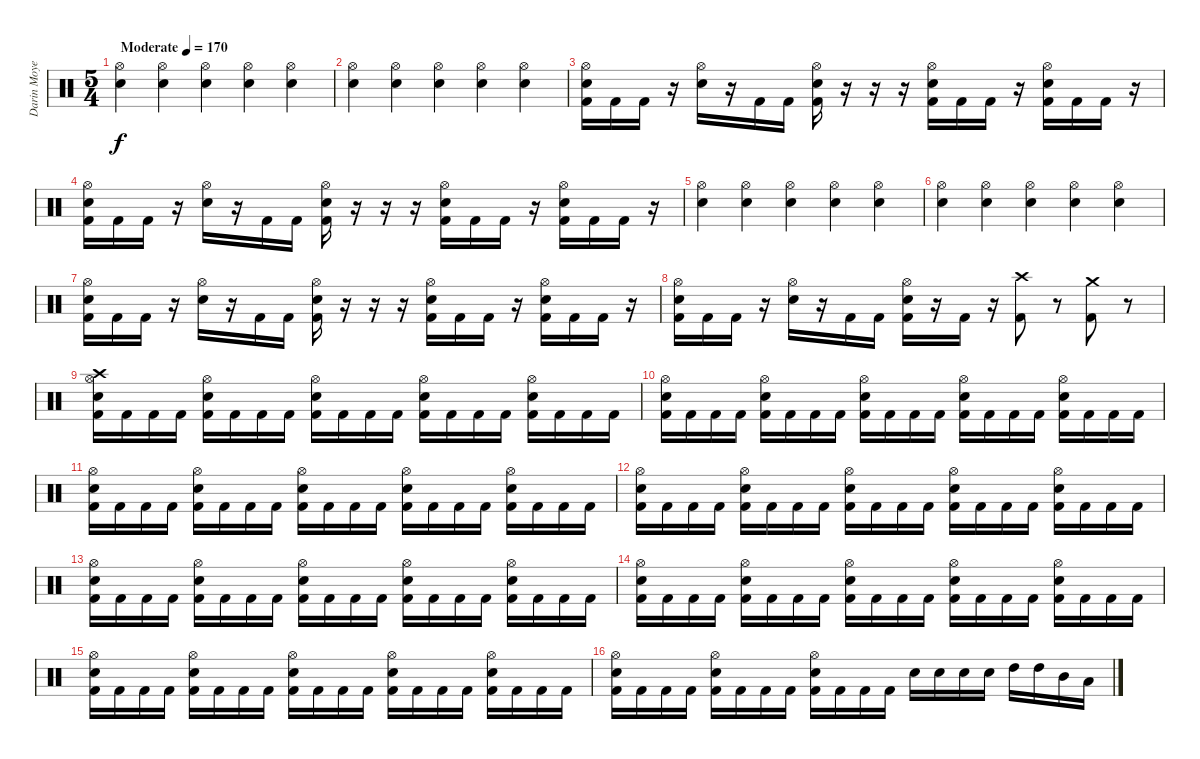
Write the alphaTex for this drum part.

\track ("Darin Moyen" "Darin Moye") {instrument percussion}
\staff {score}
\articulation defaults
\ts (5 4)
\tempo (170 "Moderate")
\clef neutral
\ks c
("Hi-Hat (open)" "Electric Snare (hit)").4{dy f} ("Hi-Hat (open)" "Electric Snare (hit)").4 ("Hi-Hat (open)" "Electric Snare (hit)").4 ("Hi-Hat (open)" "Electric Snare (hit)").4 ("Hi-Hat (open)" "Electric Snare (hit)").4 |
("Hi-Hat (open)" "Electric Snare (hit)").4 ("Hi-Hat (open)" "Electric Snare (hit)").4 ("Hi-Hat (open)" "Electric Snare (hit)").4 ("Hi-Hat (open)" "Electric Snare (hit)").4 ("Hi-Hat (open)" "Electric Snare (hit)").4 |
("Hi-Hat (open)" "Electric Snare (hit)" "Kick (hit) 2").16 "Kick (hit) 2".16 "Kick (hit) 2".16 r.16 ("Hi-Hat (open)" "Electric Snare (hit)").16 r.16 "Kick (hit) 2".16 "Kick (hit) 2".16 ("Hi-Hat (open)" "Electric Snare (hit)" "Kick (hit) 2").16 r.16 r.16 r.16 ("Hi-Hat (open)" "Electric Snare (hit)" "Kick (hit) 2").16 "Kick (hit) 2".16 "Kick (hit) 2".16 r.16 ("Hi-Hat (open)" "Electric Snare (hit)" "Kick (hit) 2").16 "Kick (hit) 2".16 "Kick (hit) 2".16 r.16 |
("Hi-Hat (open)" "Electric Snare (hit)" "Kick (hit) 2").16 "Kick (hit) 2".16 "Kick (hit) 2".16 r.16 ("Hi-Hat (open)" "Electric Snare (hit)").16 r.16 "Kick (hit) 2".16 "Kick (hit) 2".16 ("Hi-Hat (open)" "Electric Snare (hit)" "Kick (hit) 2").16 r.16 r.16 r.16 ("Hi-Hat (open)" "Electric Snare (hit)" "Kick (hit) 2").16 "Kick (hit) 2".16 "Kick (hit) 2".16 r.16 ("Hi-Hat (open)" "Electric Snare (hit)" "Kick (hit) 2").16 "Kick (hit) 2".16 "Kick (hit) 2".16 r.16 |
("Hi-Hat (open)" "Electric Snare (hit)").4 ("Hi-Hat (open)" "Electric Snare (hit)").4 ("Hi-Hat (open)" "Electric Snare (hit)").4 ("Hi-Hat (open)" "Electric Snare (hit)").4 ("Hi-Hat (open)" "Electric Snare (hit)").4 |
("Hi-Hat (open)" "Electric Snare (hit)").4 ("Hi-Hat (open)" "Electric Snare (hit)").4 ("Hi-Hat (open)" "Electric Snare (hit)").4 ("Hi-Hat (open)" "Electric Snare (hit)").4 ("Hi-Hat (open)" "Electric Snare (hit)").4 |
("Hi-Hat (open)" "Electric Snare (hit)" "Kick (hit) 2").16 "Kick (hit) 2".16 "Kick (hit) 2".16 r.16 ("Hi-Hat (open)" "Electric Snare (hit)").16 r.16 "Kick (hit) 2".16 "Kick (hit) 2".16 ("Hi-Hat (open)" "Electric Snare (hit)" "Kick (hit) 2").16 r.16 r.16 r.16 ("Hi-Hat (open)" "Electric Snare (hit)" "Kick (hit) 2").16 "Kick (hit) 2".16 "Kick (hit) 2".16 r.16 ("Hi-Hat (open)" "Electric Snare (hit)" "Kick (hit) 2").16 "Kick (hit) 2".16 "Kick (hit) 2".16 r.16 |
("Hi-Hat (open)" "Electric Snare (hit)" "Kick (hit) 2").16 "Kick (hit) 2".16 "Kick (hit) 2".16 r.16 ("Hi-Hat (open)" "Electric Snare (hit)").16 r.16 "Kick (hit) 2".16 "Kick (hit) 2".16 ("Hi-Hat (open)" "Electric Snare (hit)" "Kick (hit) 2").16 r.16 "Kick (hit) 2".16 r.16 ("Crash high (hit)" "Kick (hit) 2").8 r.8 ("Crash medium (hit)" "Kick (hit) 2").8 r.8 |
("Crash high (hit)" "Hi-Hat (open)" "Electric Snare (hit)" "Kick (hit) 2").16 "Kick (hit) 2".16 "Kick (hit) 2".16 "Kick (hit) 2".16 ("Hi-Hat (open)" "Electric Snare (hit)" "Kick (hit) 2").16 "Kick (hit) 2".16 "Kick (hit) 2".16 "Kick (hit) 2".16 ("Hi-Hat (open)" "Electric Snare (hit)" "Kick (hit) 2").16 "Kick (hit) 2".16 "Kick (hit) 2".16 "Kick (hit) 2".16 ("Hi-Hat (open)" "Electric Snare (hit)" "Kick (hit) 2").16 "Kick (hit) 2".16 "Kick (hit) 2".16 "Kick (hit) 2".16 ("Hi-Hat (open)" "Electric Snare (hit)" "Kick (hit) 2").16 "Kick (hit) 2".16 "Kick (hit) 2".16 "Kick (hit) 2".16 |
("Hi-Hat (open)" "Electric Snare (hit)" "Kick (hit) 2").16 "Kick (hit) 2".16 "Kick (hit) 2".16 "Kick (hit) 2".16 ("Hi-Hat (open)" "Electric Snare (hit)" "Kick (hit) 2").16 "Kick (hit) 2".16 "Kick (hit) 2".16 "Kick (hit) 2".16 ("Hi-Hat (open)" "Electric Snare (hit)" "Kick (hit) 2").16 "Kick (hit) 2".16 "Kick (hit) 2".16 "Kick (hit) 2".16 ("Hi-Hat (open)" "Electric Snare (hit)" "Kick (hit) 2").16 "Kick (hit) 2".16 "Kick (hit) 2".16 "Kick (hit) 2".16 ("Hi-Hat (open)" "Electric Snare (hit)" "Kick (hit) 2").16 "Kick (hit) 2".16 "Kick (hit) 2".16 "Kick (hit) 2".16 |
("Hi-Hat (open)" "Electric Snare (hit)" "Kick (hit) 2").16 "Kick (hit) 2".16 "Kick (hit) 2".16 "Kick (hit) 2".16 ("Hi-Hat (open)" "Electric Snare (hit)" "Kick (hit) 2").16 "Kick (hit) 2".16 "Kick (hit) 2".16 "Kick (hit) 2".16 ("Hi-Hat (open)" "Electric Snare (hit)" "Kick (hit) 2").16 "Kick (hit) 2".16 "Kick (hit) 2".16 "Kick (hit) 2".16 ("Hi-Hat (open)" "Electric Snare (hit)" "Kick (hit) 2").16 "Kick (hit) 2".16 "Kick (hit) 2".16 "Kick (hit) 2".16 ("Hi-Hat (open)" "Electric Snare (hit)" "Kick (hit) 2").16 "Kick (hit) 2".16 "Kick (hit) 2".16 "Kick (hit) 2".16 |
("Hi-Hat (open)" "Electric Snare (hit)" "Kick (hit) 2").16 "Kick (hit) 2".16 "Kick (hit) 2".16 "Kick (hit) 2".16 ("Hi-Hat (open)" "Electric Snare (hit)" "Kick (hit) 2").16 "Kick (hit) 2".16 "Kick (hit) 2".16 "Kick (hit) 2".16 ("Hi-Hat (open)" "Electric Snare (hit)" "Kick (hit) 2").16 "Kick (hit) 2".16 "Kick (hit) 2".16 "Kick (hit) 2".16 ("Hi-Hat (open)" "Electric Snare (hit)" "Kick (hit) 2").16 "Kick (hit) 2".16 "Kick (hit) 2".16 "Kick (hit) 2".16 ("Hi-Hat (open)" "Electric Snare (hit)" "Kick (hit) 2").16 "Kick (hit) 2".16 "Kick (hit) 2".16 "Kick (hit) 2".16 |
("Hi-Hat (open)" "Electric Snare (hit)" "Kick (hit) 2").16 "Kick (hit) 2".16 "Kick (hit) 2".16 "Kick (hit) 2".16 ("Hi-Hat (open)" "Electric Snare (hit)" "Kick (hit) 2").16 "Kick (hit) 2".16 "Kick (hit) 2".16 "Kick (hit) 2".16 ("Hi-Hat (open)" "Electric Snare (hit)" "Kick (hit) 2").16 "Kick (hit) 2".16 "Kick (hit) 2".16 "Kick (hit) 2".16 ("Hi-Hat (open)" "Electric Snare (hit)" "Kick (hit) 2").16 "Kick (hit) 2".16 "Kick (hit) 2".16 "Kick (hit) 2".16 ("Hi-Hat (open)" "Electric Snare (hit)" "Kick (hit) 2").16 "Kick (hit) 2".16 "Kick (hit) 2".16 "Kick (hit) 2".16 |
("Hi-Hat (open)" "Electric Snare (hit)" "Kick (hit) 2").16 "Kick (hit) 2".16 "Kick (hit) 2".16 "Kick (hit) 2".16 ("Hi-Hat (open)" "Electric Snare (hit)" "Kick (hit) 2").16 "Kick (hit) 2".16 "Kick (hit) 2".16 "Kick (hit) 2".16 ("Hi-Hat (open)" "Electric Snare (hit)" "Kick (hit) 2").16 "Kick (hit) 2".16 "Kick (hit) 2".16 "Kick (hit) 2".16 ("Hi-Hat (open)" "Electric Snare (hit)" "Kick (hit) 2").16 "Kick (hit) 2".16 "Kick (hit) 2".16 "Kick (hit) 2".16 ("Hi-Hat (open)" "Electric Snare (hit)" "Kick (hit) 2").16 "Kick (hit) 2".16 "Kick (hit) 2".16 "Kick (hit) 2".16 |
("Hi-Hat (open)" "Electric Snare (hit)" "Kick (hit) 2").16 "Kick (hit) 2".16 "Kick (hit) 2".16 "Kick (hit) 2".16 ("Hi-Hat (open)" "Electric Snare (hit)" "Kick (hit) 2").16 "Kick (hit) 2".16 "Kick (hit) 2".16 "Kick (hit) 2".16 ("Hi-Hat (open)" "Electric Snare (hit)" "Kick (hit) 2").16 "Kick (hit) 2".16 "Kick (hit) 2".16 "Kick (hit) 2".16 ("Hi-Hat (open)" "Electric Snare (hit)" "Kick (hit) 2").16 "Kick (hit) 2".16 "Kick (hit) 2".16 "Kick (hit) 2".16 ("Hi-Hat (open)" "Electric Snare (hit)" "Kick (hit) 2").16 "Kick (hit) 2".16 "Kick (hit) 2".16 "Kick (hit) 2".16 |
("Hi-Hat (open)" "Electric Snare (hit)" "Kick (hit) 2").16 "Kick (hit) 2".16 "Kick (hit) 2".16 "Kick (hit) 2".16 ("Hi-Hat (open)" "Electric Snare (hit)" "Kick (hit) 2").16 "Kick (hit) 2".16 "Kick (hit) 2".16 "Kick (hit) 2".16 ("Hi-Hat (open)" "Electric Snare (hit)" "Kick (hit) 2").16 "Kick (hit) 2".16 "Kick (hit) 2".16 "Kick (hit) 2".16 "Electric Snare (hit)".16 "Electric Snare (hit)".16 "Electric Snare (hit)".16 "Electric Snare (hit)".16 "High Tom (hit)".16 "High Tom (hit)".16 "Mid Tom (hit)".16 "Low Tom (hit)".16
